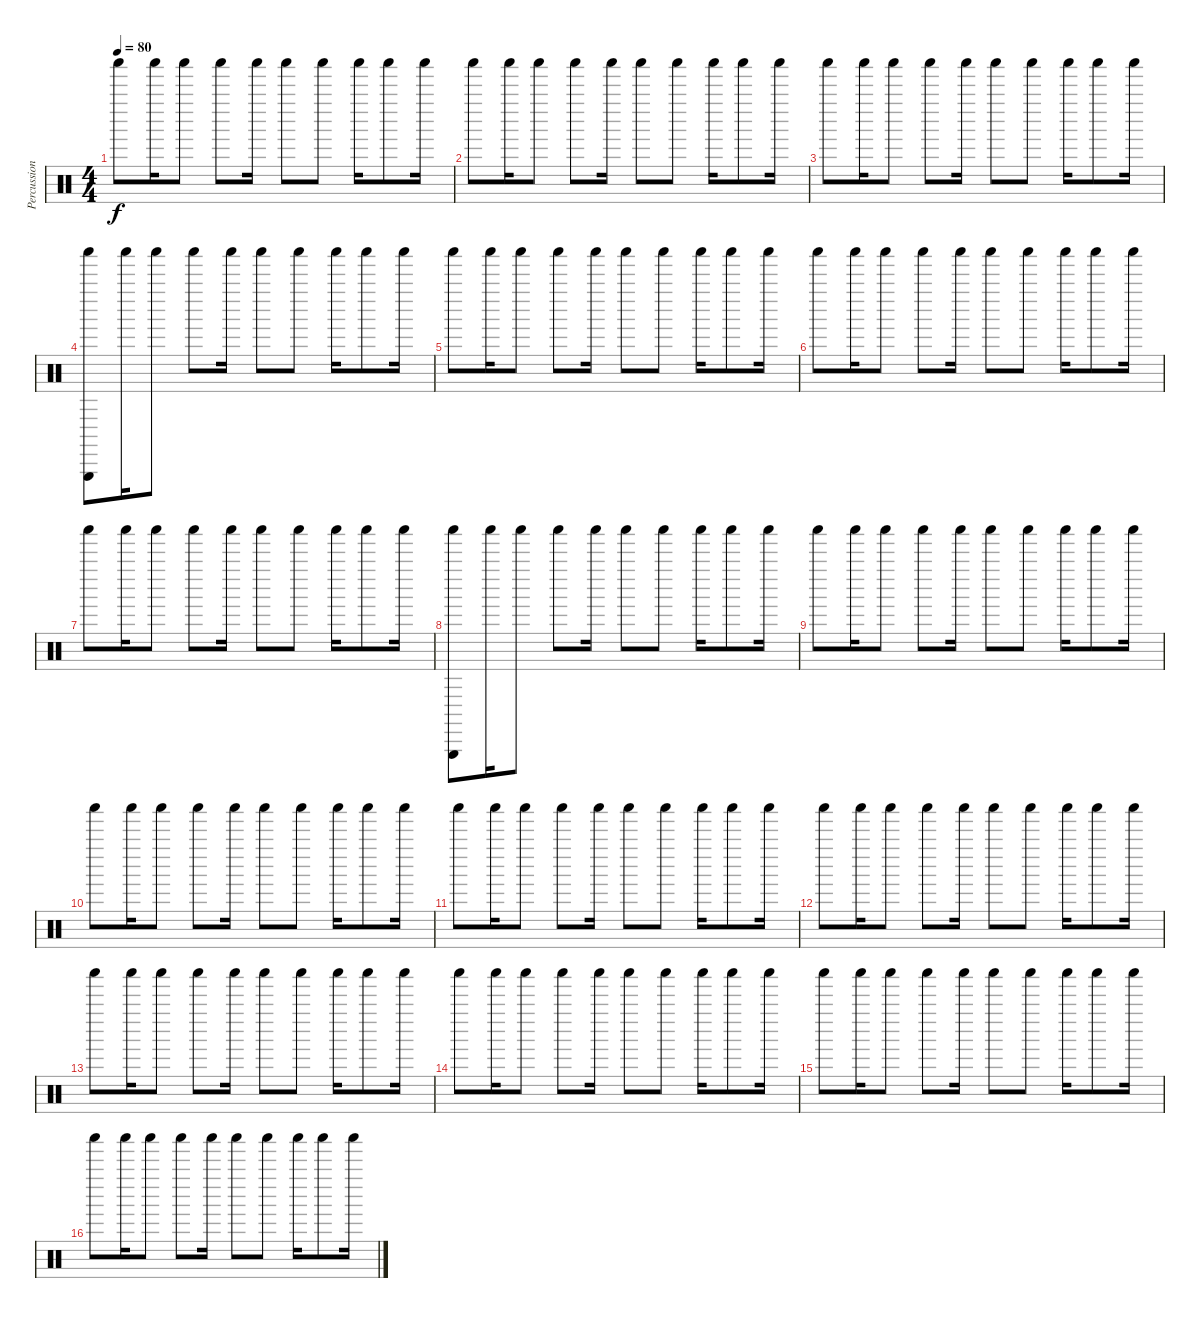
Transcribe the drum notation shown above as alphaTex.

\track ("Percussion" "Percussion") {instrument percussion}
\staff {score}
\articulation defaults
\ts (4 4)
\tempo 80
\clef neutral
\ks c "Shaker (hit)".8{dy f} "Shaker (hit)".16 "Shaker (hit)".8 "Shaker (hit)".8 "Shaker (hit)".16 "Shaker (hit)".8 "Shaker (hit)".8 "Shaker (hit)".16 "Shaker (hit)".8 "Shaker (hit)".16
|
"Shaker (hit)".8 "Shaker (hit)".16 "Shaker (hit)".8 "Shaker (hit)".8 "Shaker (hit)".16 "Shaker (hit)".8 "Shaker (hit)".8 "Shaker (hit)".16 "Shaker (hit)".8 "Shaker (hit)".16 |
"Shaker (hit)".8 "Shaker (hit)".16 "Shaker (hit)".8 "Shaker (hit)".8 "Shaker (hit)".16 "Shaker (hit)".8 "Shaker (hit)".8 "Shaker (hit)".16 "Shaker (hit)".8 "Shaker (hit)".16 |
("Shaker (hit)" "Triangle (hit)").8 "Shaker (hit)".16 "Shaker (hit)".8 "Shaker (hit)".8 "Shaker (hit)".16 "Shaker (hit)".8 "Shaker (hit)".8 "Shaker (hit)".16 "Shaker (hit)".8 "Shaker (hit)".16 |
"Shaker (hit)".8 "Shaker (hit)".16 "Shaker (hit)".8 "Shaker (hit)".8 "Shaker (hit)".16 "Shaker (hit)".8 "Shaker (hit)".8 "Shaker (hit)".16 "Shaker (hit)".8 "Shaker (hit)".16 |
"Shaker (hit)".8 "Shaker (hit)".16 "Shaker (hit)".8 "Shaker (hit)".8 "Shaker (hit)".16 "Shaker (hit)".8 "Shaker (hit)".8 "Shaker (hit)".16 "Shaker (hit)".8 "Shaker (hit)".16 |
"Shaker (hit)".8 "Shaker (hit)".16 "Shaker (hit)".8 "Shaker (hit)".8 "Shaker (hit)".16 "Shaker (hit)".8 "Shaker (hit)".8 "Shaker (hit)".16 "Shaker (hit)".8 "Shaker (hit)".16 |
("Shaker (hit)" "Triangle (hit)").8 "Shaker (hit)".16 "Shaker (hit)".8 "Shaker (hit)".8 "Shaker (hit)".16 "Shaker (hit)".8 "Shaker (hit)".8 "Shaker (hit)".16 "Shaker (hit)".8 "Shaker (hit)".16 |
"Shaker (hit)".8 "Shaker (hit)".16 "Shaker (hit)".8 "Shaker (hit)".8 "Shaker (hit)".16 "Shaker (hit)".8 "Shaker (hit)".8 "Shaker (hit)".16 "Shaker (hit)".8 "Shaker (hit)".16 |
"Shaker (hit)".8 "Shaker (hit)".16 "Shaker (hit)".8 "Shaker (hit)".8 "Shaker (hit)".16 "Shaker (hit)".8 "Shaker (hit)".8 "Shaker (hit)".16 "Shaker (hit)".8 "Shaker (hit)".16 |
"Shaker (hit)".8 "Shaker (hit)".16 "Shaker (hit)".8 "Shaker (hit)".8 "Shaker (hit)".16 "Shaker (hit)".8 "Shaker (hit)".8 "Shaker (hit)".16 "Shaker (hit)".8 "Shaker (hit)".16 |
"Shaker (hit)".8 "Shaker (hit)".16 "Shaker (hit)".8 "Shaker (hit)".8 "Shaker (hit)".16 "Shaker (hit)".8 "Shaker (hit)".8 "Shaker (hit)".16 "Shaker (hit)".8 "Shaker (hit)".16 |
"Shaker (hit)".8 "Shaker (hit)".16 "Shaker (hit)".8 "Shaker (hit)".8 "Shaker (hit)".16 "Shaker (hit)".8 "Shaker (hit)".8 "Shaker (hit)".16 "Shaker (hit)".8 "Shaker (hit)".16 |
"Shaker (hit)".8 "Shaker (hit)".16 "Shaker (hit)".8 "Shaker (hit)".8 "Shaker (hit)".16 "Shaker (hit)".8 "Shaker (hit)".8 "Shaker (hit)".16 "Shaker (hit)".8 "Shaker (hit)".16 |
"Shaker (hit)".8 "Shaker (hit)".16 "Shaker (hit)".8 "Shaker (hit)".8 "Shaker (hit)".16 "Shaker (hit)".8 "Shaker (hit)".8 "Shaker (hit)".16 "Shaker (hit)".8 "Shaker (hit)".16 |
"Shaker (hit)".8 "Shaker (hit)".16 "Shaker (hit)".8 "Shaker (hit)".8 "Shaker (hit)".16 "Shaker (hit)".8 "Shaker (hit)".8 "Shaker (hit)".16 "Shaker (hit)".8 "Shaker (hit)".16
